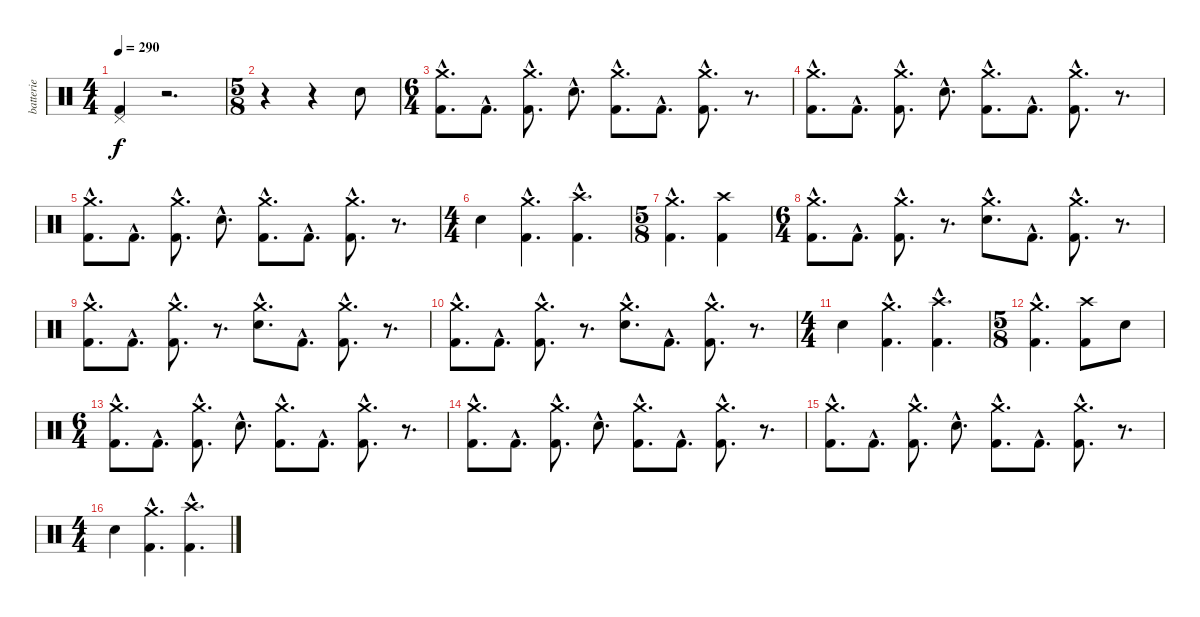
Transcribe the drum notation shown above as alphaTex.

\track ("batterie" "batterie") {instrument percussion}
\staff {score}
\articulation defaults
\ts (4 4)
\tempo 290
\clef neutral
\ks c
("Pedal Hi-Hat (hit)" "Kick (hit) 2").4{dy f} r.2{d} |
\ts (5 8)
r.4 r.4 "Electric Snare (hit)".8 |
\ts (6 4)
("Crash medium (hit)"{hac} "Kick (hit) 2"{hac}).8{d} "Kick (hit) 2"{hac}.8{d} ("Crash medium (hit)"{hac} "Kick (hit) 2"{hac}).8{d} "Electric Snare (hit)"{hac}.8{d} ("Crash medium (hit)"{hac} "Kick (hit) 2"{hac}).8{d} "Kick (hit) 2"{hac}.8{d} ("Crash medium (hit)"{hac} "Kick (hit) 2"{hac}).8{d} r.8{d} |
("Crash medium (hit)"{hac} "Kick (hit) 2"{hac}).8{d} "Kick (hit) 2"{hac}.8{d} ("Crash medium (hit)"{hac} "Kick (hit) 2"{hac}).8{d} "Electric Snare (hit)"{hac}.8{d} ("Crash medium (hit)"{hac} "Kick (hit) 2"{hac}).8{d} "Kick (hit) 2"{hac}.8{d} ("Crash medium (hit)"{hac} "Kick (hit) 2"{hac}).8{d} r.8{d} |
("Crash medium (hit)"{hac} "Kick (hit) 2"{hac}).8{d} "Kick (hit) 2"{hac}.8{d} ("Crash medium (hit)"{hac} "Kick (hit) 2"{hac}).8{d} "Electric Snare (hit)"{hac}.8{d} ("Crash medium (hit)"{hac} "Kick (hit) 2"{hac}).8{d} "Kick (hit) 2"{hac}.8{d} ("Crash medium (hit)"{hac} "Kick (hit) 2"{hac}).8{d} r.8{d} |
\ts (4 4)
"Electric Snare (hit)".4 ("Crash medium (hit)"{hac} "Kick (hit) 2"{hac}).4{d} ("Crash high (hit)"{hac} "Kick (hit) 2"{hac}).4{d} |
\ts (5 8)
("Crash medium (hit)"{hac} "Kick (hit) 2"{hac}).4{d} ("Crash high (hit)" "Kick (hit) 2").4 |
\ts (6 4)
("Crash medium (hit)"{hac} "Kick (hit) 2"{hac}).8{d} "Kick (hit) 2"{hac}.8{d} ("Crash medium (hit)"{hac} "Kick (hit) 2"{hac}).8{d} r.8{d} ("Crash medium (hit)"{hac} "Electric Snare (hit)"{hac}).8{d} "Kick (hit) 2"{hac}.8{d} ("Crash medium (hit)"{hac} "Kick (hit) 2"{hac}).8{d} r.8{d} |
("Crash medium (hit)"{hac} "Kick (hit) 2"{hac}).8{d} "Kick (hit) 2"{hac}.8{d} ("Crash medium (hit)"{hac} "Kick (hit) 2"{hac}).8{d} r.8{d} ("Crash medium (hit)"{hac} "Electric Snare (hit)"{hac}).8{d} "Kick (hit) 2"{hac}.8{d} ("Crash medium (hit)"{hac} "Kick (hit) 2"{hac}).8{d} r.8{d} |
("Crash medium (hit)"{hac} "Kick (hit) 2"{hac}).8{d} "Kick (hit) 2"{hac}.8{d} ("Crash medium (hit)"{hac} "Kick (hit) 2"{hac}).8{d} r.8{d} ("Crash medium (hit)"{hac} "Electric Snare (hit)"{hac}).8{d} "Kick (hit) 2"{hac}.8{d} ("Crash medium (hit)"{hac} "Kick (hit) 2"{hac}).8{d} r.8{d} |
\ts (4 4)
"Electric Snare (hit)".4 ("Crash medium (hit)"{hac} "Kick (hit) 2"{hac}).4{d} ("Crash high (hit)"{hac} "Kick (hit) 2"{hac}).4{d} |
\ts (5 8)
("Crash medium (hit)"{hac} "Kick (hit) 2"{hac}).4{d} ("Crash high (hit)" "Kick (hit) 2").8 "Electric Snare (hit)".8 |
\ts (6 4)
("Crash medium (hit)"{hac} "Kick (hit) 2"{hac}).8{d} "Kick (hit) 2"{hac}.8{d} ("Crash medium (hit)"{hac} "Kick (hit) 2"{hac}).8{d} "Electric Snare (hit)"{hac}.8{d} ("Crash medium (hit)"{hac} "Kick (hit) 2"{hac}).8{d} "Kick (hit) 2"{hac}.8{d} ("Crash medium (hit)"{hac} "Kick (hit) 2"{hac}).8{d} r.8{d} |
("Crash medium (hit)"{hac} "Kick (hit) 2"{hac}).8{d} "Kick (hit) 2"{hac}.8{d} ("Crash medium (hit)"{hac} "Kick (hit) 2"{hac}).8{d} "Electric Snare (hit)"{hac}.8{d} ("Crash medium (hit)"{hac} "Kick (hit) 2"{hac}).8{d} "Kick (hit) 2"{hac}.8{d} ("Crash medium (hit)"{hac} "Kick (hit) 2"{hac}).8{d} r.8{d} |
("Crash medium (hit)"{hac} "Kick (hit) 2"{hac}).8{d} "Kick (hit) 2"{hac}.8{d} ("Crash medium (hit)"{hac} "Kick (hit) 2"{hac}).8{d} "Electric Snare (hit)"{hac}.8{d} ("Crash medium (hit)"{hac} "Kick (hit) 2"{hac}).8{d} "Kick (hit) 2"{hac}.8{d} ("Crash medium (hit)"{hac} "Kick (hit) 2"{hac}).8{d} r.8{d} |
\ts (4 4)
"Electric Snare (hit)".4 ("Crash medium (hit)"{hac} "Kick (hit) 2"{hac}).4{d} ("Crash high (hit)"{hac} "Kick (hit) 2"{hac}).4{d}
